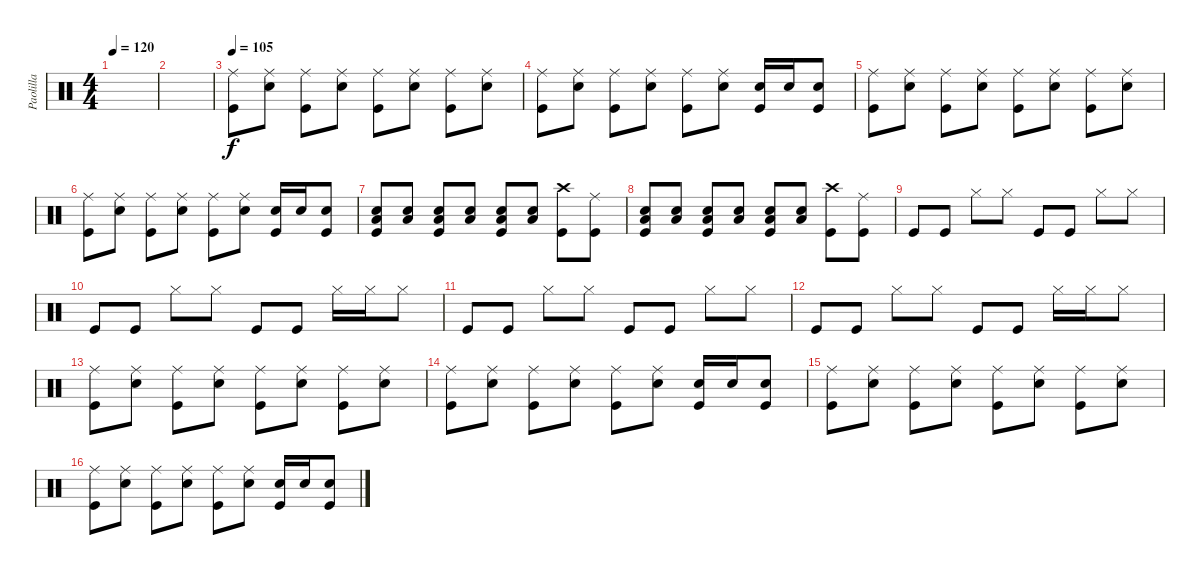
\track ("Paolilla" "Paolilla") {instrument percussion}
\staff {score}
\articulation defaults
\ts (4 4)
\tempo 120
\tempo 105
\tempo 120
\clef neutral
\ks c
|
|
\tempo 105
("Ride (middle)" "Kick (hit)").8 ("Ride (middle)" "Snare (hit) 2").8 ("Ride (middle)" "Kick (hit)").8 ("Ride (middle)" "Snare (hit) 2").8 ("Ride (middle)" "Kick (hit)").8 ("Ride (middle)" "Snare (hit) 2").8 ("Ride (middle)" "Kick (hit)").8 ("Ride (middle)" "Snare (hit) 2").8 |
("Ride (middle)" "Kick (hit)").8 ("Ride (middle)" "Snare (hit) 2").8 ("Ride (middle)" "Kick (hit)").8 ("Ride (middle)" "Snare (hit) 2").8 ("Ride (middle)" "Kick (hit)").8 ("Ride (middle)" "Snare (hit) 2").8 ("Snare (hit) 2" "Kick (hit)").16 "Snare (hit) 2".16 ("Kick (hit)" "Snare (hit) 2").8 |
("Ride (middle)" "Kick (hit)").8 ("Ride (middle)" "Snare (hit) 2").8 ("Ride (middle)" "Kick (hit)").8 ("Ride (middle)" "Snare (hit) 2").8 ("Ride (middle)" "Kick (hit)").8 ("Ride (middle)" "Snare (hit) 2").8 ("Ride (middle)" "Kick (hit)").8 ("Ride (middle)" "Snare (hit) 2").8 |
("Ride (middle)" "Kick (hit)").8 ("Ride (middle)" "Snare (hit) 2").8 ("Ride (middle)" "Kick (hit)").8 ("Ride (middle)" "Snare (hit) 2").8 ("Ride (middle)" "Kick (hit)").8 ("Ride (middle)" "Snare (hit) 2").8 ("Snare (hit) 2" "Kick (hit)").16 "Snare (hit) 2".16 ("Kick (hit)" "Snare (hit) 2").8 |
("Low Tom (hit)" "Snare (hit) 2" "Kick (hit)").8 ("Low Tom (hit)" "Snare (hit) 2").8 ("Low Tom (hit)" "Snare (hit) 2" "Kick (hit)").8 ("Low Tom (hit)" "Snare (hit) 2").8 ("Low Tom (hit)" "Snare (hit) 2" "Kick (hit)").8 ("Low Tom (hit)" "Snare (hit) 2").8 ("Crash high (hit)" "Kick (hit)").8 ("Ride (middle)" "Kick (hit)").8 |
("Low Tom (hit)" "Snare (hit) 2" "Kick (hit)").8 ("Low Tom (hit)" "Snare (hit) 2").8 ("Low Tom (hit)" "Snare (hit) 2" "Kick (hit)").8 ("Low Tom (hit)" "Snare (hit) 2").8 ("Low Tom (hit)" "Snare (hit) 2" "Kick (hit)").8 ("Low Tom (hit)" "Snare (hit) 2").8 ("Crash high (hit)" "Kick (hit)").8 ("Ride (middle)" "Kick (hit)").8 |
"Kick (hit)".8 "Kick (hit)".8 "Hi-Hat (closed)".8 "Hi-Hat (closed)".8 "Kick (hit)".8 "Kick (hit)".8 "Hi-Hat (closed)".8 "Hi-Hat (closed)".8 |
"Kick (hit)".8 "Kick (hit)".8 "Hi-Hat (closed)".8 "Hi-Hat (closed)".8 "Kick (hit)".8 "Kick (hit)".8 "Hi-Hat (closed)".16 "Hi-Hat (closed)".16 "Hi-Hat (closed)".8 |
"Kick (hit)".8 "Kick (hit)".8 "Hi-Hat (closed)".8 "Hi-Hat (closed)".8 "Kick (hit)".8 "Kick (hit)".8 "Hi-Hat (closed)".8 "Hi-Hat (closed)".8 |
"Kick (hit)".8 "Kick (hit)".8 "Hi-Hat (closed)".8 "Hi-Hat (closed)".8 "Kick (hit)".8 "Kick (hit)".8 "Hi-Hat (closed)".16 "Hi-Hat (closed)".16 "Hi-Hat (closed)".8 |
("Ride (middle)" "Kick (hit)").8 ("Ride (middle)" "Snare (hit) 2").8 ("Ride (middle)" "Kick (hit)").8 ("Ride (middle)" "Snare (hit) 2").8 ("Ride (middle)" "Kick (hit)").8 ("Ride (middle)" "Snare (hit) 2").8 ("Ride (middle)" "Kick (hit)").8 ("Ride (middle)" "Snare (hit) 2").8 |
("Ride (middle)" "Kick (hit)").8 ("Ride (middle)" "Snare (hit) 2").8 ("Ride (middle)" "Kick (hit)").8 ("Ride (middle)" "Snare (hit) 2").8 ("Ride (middle)" "Kick (hit)").8 ("Ride (middle)" "Snare (hit) 2").8 ("Snare (hit) 2" "Kick (hit)").16 "Snare (hit) 2".16 ("Kick (hit)" "Snare (hit) 2").8 |
("Ride (middle)" "Kick (hit)").8 ("Ride (middle)" "Snare (hit) 2").8 ("Ride (middle)" "Kick (hit)").8 ("Ride (middle)" "Snare (hit) 2").8 ("Ride (middle)" "Kick (hit)").8 ("Ride (middle)" "Snare (hit) 2").8 ("Ride (middle)" "Kick (hit)").8 ("Ride (middle)" "Snare (hit) 2").8 |
("Ride (middle)" "Kick (hit)").8 ("Ride (middle)" "Snare (hit) 2").8 ("Ride (middle)" "Kick (hit)").8 ("Ride (middle)" "Snare (hit) 2").8 ("Ride (middle)" "Kick (hit)").8 ("Ride (middle)" "Snare (hit) 2").8 ("Snare (hit) 2" "Kick (hit)").16 "Snare (hit) 2".16 ("Kick (hit)" "Snare (hit) 2").8
